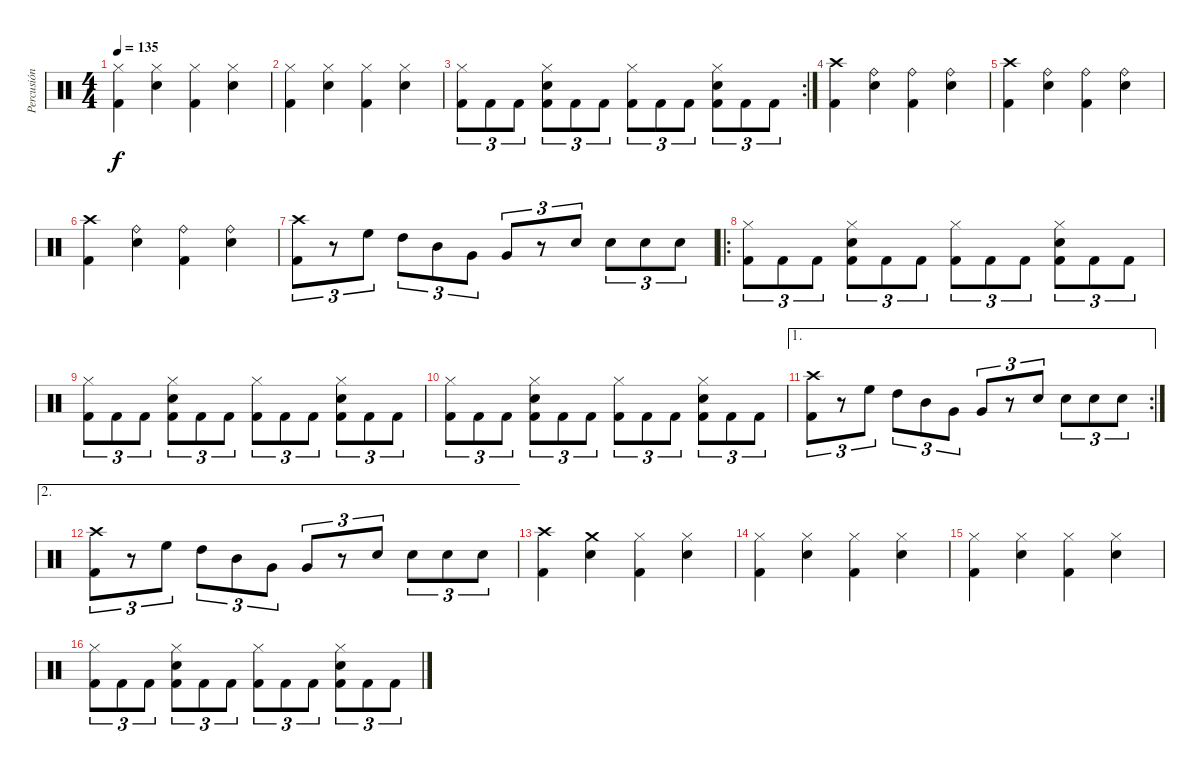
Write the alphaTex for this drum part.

\track ("Percusión" "Percusión") {instrument percussion}
\staff {score}
\articulation defaults
\ts (4 4)
\tempo 135
\clef neutral
\ks c
("Hi-Hat (closed)" "Kick (hit) 2").4{dy f} ("Hi-Hat (closed)" "Snare (hit) 2").4 ("Hi-Hat (closed)" "Kick (hit) 2").4 ("Hi-Hat (closed)" "Snare (hit) 2").4 |
("Hi-Hat (closed)" "Kick (hit) 2").4 ("Hi-Hat (closed)" "Snare (hit) 2").4 ("Hi-Hat (closed)" "Kick (hit) 2").4 ("Hi-Hat (closed)" "Snare (hit) 2").4 |
\rc 2
("Hi-Hat (closed)" "Kick (hit) 2").8{tu (3 2)} "Kick (hit) 2".8{tu (3 2)} "Kick (hit) 2".8{tu (3 2)} ("Hi-Hat (closed)" "Snare (hit) 2" "Kick (hit) 2").8{tu (3 2)} "Kick (hit) 2".8{tu (3 2)} "Kick (hit) 2".8{tu (3 2)} ("Hi-Hat (closed)" "Kick (hit) 2").8{tu (3 2)} "Kick (hit) 2".8{tu (3 2)} "Kick (hit) 2".8{tu (3 2)} ("Hi-Hat (closed)" "Snare (hit) 2" "Kick (hit) 2").8{tu (3 2)} "Kick (hit) 2".8{tu (3 2)} "Kick (hit) 2".8{tu (3 2)} |
("Crash high (hit)" "Kick (hit) 2").4 ("Ride (bell)" "Snare (hit) 2").4 ("Ride (bell)" "Kick (hit) 2").4 ("Ride (bell)" "Snare (hit) 2").4 |
("Crash high (hit)" "Kick (hit) 2").4 ("Ride (bell)" "Snare (hit) 2").4 ("Ride (bell)" "Kick (hit) 2").4 ("Ride (bell)" "Snare (hit) 2").4 |
("Crash high (hit)" "Kick (hit) 2").4 ("Ride (bell)" "Snare (hit) 2").4 ("Ride (bell)" "Kick (hit) 2").4 ("Ride (bell)" "Snare (hit) 2").4 |
("Crash high (hit)" "Kick (hit) 2").8{tu (3 2)} r.8{tu (3 2)} "High Floor Tom (hit)".8{tu (3 2)} "High Tom (hit)".8{tu (3 2)} "Mid Tom (hit)".8{tu (3 2)} "Very Low Tom (hit)".8{tu (3 2)} "Very Low Tom (hit)".8{tu (3 2)} r.8{tu (3 2)} "Snare (hit) 2".8{tu (3 2)} "Snare (hit) 2".8{tu (3 2)} "Snare (hit) 2".8{tu (3 2)} "Snare (hit) 2".8{tu (3 2)} |
\ro
("Hi-Hat (closed)" "Kick (hit) 2").8{tu (3 2)} "Kick (hit) 2".8{tu (3 2)} "Kick (hit) 2".8{tu (3 2)} ("Hi-Hat (closed)" "Snare (hit) 2" "Kick (hit) 2").8{tu (3 2)} "Kick (hit) 2".8{tu (3 2)} "Kick (hit) 2".8{tu (3 2)} ("Hi-Hat (closed)" "Kick (hit) 2").8{tu (3 2)} "Kick (hit) 2".8{tu (3 2)} "Kick (hit) 2".8{tu (3 2)} ("Hi-Hat (closed)" "Snare (hit) 2" "Kick (hit) 2").8{tu (3 2)} "Kick (hit) 2".8{tu (3 2)} "Kick (hit) 2".8{tu (3 2)} |
("Hi-Hat (closed)" "Kick (hit) 2").8{tu (3 2)} "Kick (hit) 2".8{tu (3 2)} "Kick (hit) 2".8{tu (3 2)} ("Hi-Hat (closed)" "Snare (hit) 2" "Kick (hit) 2").8{tu (3 2)} "Kick (hit) 2".8{tu (3 2)} "Kick (hit) 2".8{tu (3 2)} ("Hi-Hat (closed)" "Kick (hit) 2").8{tu (3 2)} "Kick (hit) 2".8{tu (3 2)} "Kick (hit) 2".8{tu (3 2)} ("Hi-Hat (closed)" "Snare (hit) 2" "Kick (hit) 2").8{tu (3 2)} "Kick (hit) 2".8{tu (3 2)} "Kick (hit) 2".8{tu (3 2)} |
("Hi-Hat (closed)" "Kick (hit) 2").8{tu (3 2)} "Kick (hit) 2".8{tu (3 2)} "Kick (hit) 2".8{tu (3 2)} ("Hi-Hat (closed)" "Snare (hit) 2" "Kick (hit) 2").8{tu (3 2)} "Kick (hit) 2".8{tu (3 2)} "Kick (hit) 2".8{tu (3 2)} ("Hi-Hat (closed)" "Kick (hit) 2").8{tu (3 2)} "Kick (hit) 2".8{tu (3 2)} "Kick (hit) 2".8{tu (3 2)} ("Hi-Hat (closed)" "Snare (hit) 2" "Kick (hit) 2").8{tu (3 2)} "Kick (hit) 2".8{tu (3 2)} "Kick (hit) 2".8{tu (3 2)} |
\ae 1
\rc 2
("Crash high (hit)" "Kick (hit) 2").8{tu (3 2)} r.8{tu (3 2)} "High Floor Tom (hit)".8{tu (3 2)} "High Tom (hit)".8{tu (3 2)} "Mid Tom (hit)".8{tu (3 2)} "Very Low Tom (hit)".8{tu (3 2)} "Very Low Tom (hit)".8{tu (3 2)} r.8{tu (3 2)} "Snare (hit) 2".8{tu (3 2)} "Snare (hit) 2".8{tu (3 2)} "Snare (hit) 2".8{tu (3 2)} "Snare (hit) 2".8{tu (3 2)} |
\ae 2
("Crash high (hit)" "Kick (hit) 2").8{tu (3 2)} r.8{tu (3 2)} "High Floor Tom (hit)".8{tu (3 2)} "High Tom (hit)".8{tu (3 2)} "Mid Tom (hit)".8{tu (3 2)} "Very Low Tom (hit)".8{tu (3 2)} "Very Low Tom (hit)".8{tu (3 2)} r.8{tu (3 2)} "Snare (hit) 2".8{tu (3 2)} "Snare (hit) 2".8{tu (3 2)} "Snare (hit) 2".8{tu (3 2)} "Snare (hit) 2".8{tu (3 2)} |
("Crash high (hit)" "Kick (hit) 2").4 ("Crash medium (hit)" "Snare (hit) 2").4 ("Hi-Hat (closed)" "Kick (hit) 2").4 ("Hi-Hat (closed)" "Snare (hit) 2").4 |
("Hi-Hat (closed)" "Kick (hit) 2").4 ("Hi-Hat (closed)" "Snare (hit) 2").4 ("Hi-Hat (closed)" "Kick (hit) 2").4 ("Hi-Hat (closed)" "Snare (hit) 2").4 |
("Hi-Hat (closed)" "Kick (hit) 2").4 ("Hi-Hat (closed)" "Snare (hit) 2").4 ("Hi-Hat (closed)" "Kick (hit) 2").4 ("Hi-Hat (closed)" "Snare (hit) 2").4 |
("Hi-Hat (closed)" "Kick (hit) 2").8{tu (3 2)} "Kick (hit) 2".8{tu (3 2)} "Kick (hit) 2".8{tu (3 2)} ("Hi-Hat (closed)" "Snare (hit) 2" "Kick (hit) 2").8{tu (3 2)} "Kick (hit) 2".8{tu (3 2)} "Kick (hit) 2".8{tu (3 2)} ("Hi-Hat (closed)" "Kick (hit) 2").8{tu (3 2)} "Kick (hit) 2".8{tu (3 2)} "Kick (hit) 2".8{tu (3 2)} ("Hi-Hat (closed)" "Snare (hit) 2" "Kick (hit) 2").8{tu (3 2)} "Kick (hit) 2".8{tu (3 2)} "Kick (hit) 2".8{tu (3 2)}
